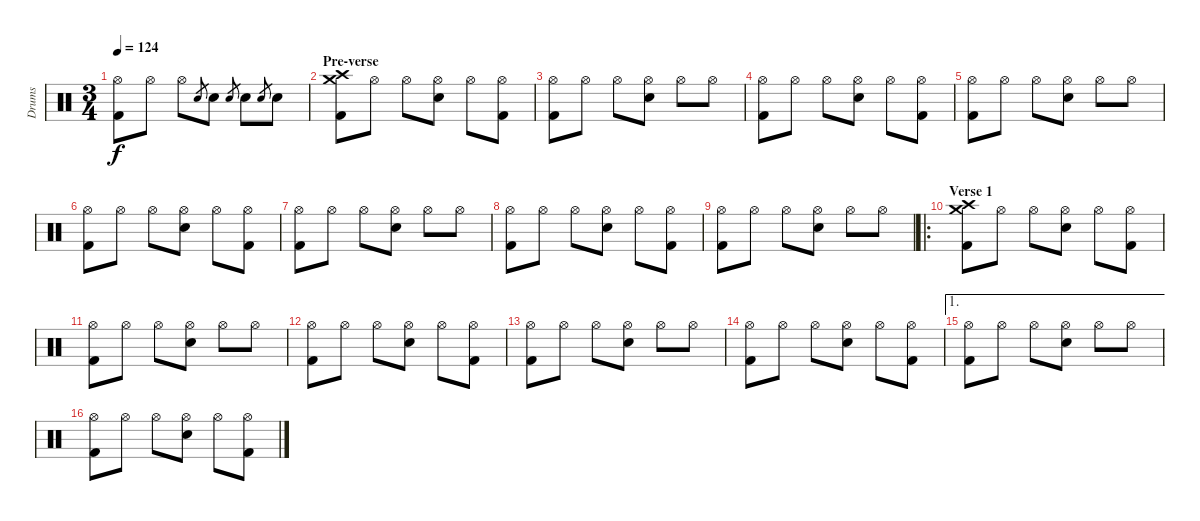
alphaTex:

\track ("Drums" "Drums") {instrument percussion}
\staff {score}
\articulation defaults
\ts (3 4)
\tempo 124
\clef neutral
\ks c
("Hi-Hat (open)" "Kick (hit) 2").8{dy f} "Hi-Hat (open)".8 "Hi-Hat (open)".8 "Electric Snare (hit)".8{gr} "Electric Snare (hit)".8 "Electric Snare (hit)".8{gr} "Electric Snare (hit)".8 "Electric Snare (hit)".8{gr} "Electric Snare (hit)".8 |
\section ("" "Pre-verse")
("Crash medium (hit)" "Crash high (hit)" "Kick (hit) 2").8 "Hi-Hat (open)".8 "Hi-Hat (open)".8 ("Hi-Hat (open)" "Electric Snare (hit)").8 "Hi-Hat (open)".8 ("Hi-Hat (open)" "Kick (hit) 2").8 |
("Hi-Hat (open)" "Kick (hit) 2").8 "Hi-Hat (open)".8 "Hi-Hat (open)".8 ("Hi-Hat (open)" "Electric Snare (hit)").8 "Hi-Hat (open)".8 "Hi-Hat (open)".8 |
("Hi-Hat (open)" "Kick (hit) 2").8 "Hi-Hat (open)".8 "Hi-Hat (open)".8 ("Hi-Hat (open)" "Electric Snare (hit)").8 "Hi-Hat (open)".8 ("Hi-Hat (open)" "Kick (hit) 2").8 |
("Hi-Hat (open)" "Kick (hit) 2").8 "Hi-Hat (open)".8 "Hi-Hat (open)".8 ("Hi-Hat (open)" "Electric Snare (hit)").8 "Hi-Hat (open)".8 "Hi-Hat (open)".8 |
("Hi-Hat (open)" "Kick (hit) 2").8 "Hi-Hat (open)".8 "Hi-Hat (open)".8 ("Hi-Hat (open)" "Electric Snare (hit)").8 "Hi-Hat (open)".8 ("Hi-Hat (open)" "Kick (hit) 2").8 |
("Hi-Hat (open)" "Kick (hit) 2").8 "Hi-Hat (open)".8 "Hi-Hat (open)".8 ("Hi-Hat (open)" "Electric Snare (hit)").8 "Hi-Hat (open)".8 "Hi-Hat (open)".8 |
("Hi-Hat (open)" "Kick (hit) 2").8 "Hi-Hat (open)".8 "Hi-Hat (open)".8 ("Hi-Hat (open)" "Electric Snare (hit)").8 "Hi-Hat (open)".8 ("Hi-Hat (open)" "Kick (hit) 2").8 |
("Hi-Hat (open)" "Kick (hit) 2").8 "Hi-Hat (open)".8 "Hi-Hat (open)".8 ("Hi-Hat (open)" "Electric Snare (hit)").8 "Hi-Hat (open)".8 "Hi-Hat (open)".8 |
\ro
\section ("" "Verse 1")
("Crash medium (hit)" "Crash high (hit)" "Kick (hit) 2").8 "Hi-Hat (open)".8 "Hi-Hat (open)".8 ("Hi-Hat (open)" "Electric Snare (hit)").8 "Hi-Hat (open)".8 ("Hi-Hat (open)" "Kick (hit) 2").8 |
("Hi-Hat (open)" "Kick (hit) 2").8 "Hi-Hat (open)".8 "Hi-Hat (open)".8 ("Hi-Hat (open)" "Electric Snare (hit)").8 "Hi-Hat (open)".8 "Hi-Hat (open)".8 |
("Hi-Hat (open)" "Kick (hit) 2").8 "Hi-Hat (open)".8 "Hi-Hat (open)".8 ("Hi-Hat (open)" "Electric Snare (hit)").8 "Hi-Hat (open)".8 ("Hi-Hat (open)" "Kick (hit) 2").8 |
("Hi-Hat (open)" "Kick (hit) 2").8 "Hi-Hat (open)".8 "Hi-Hat (open)".8 ("Hi-Hat (open)" "Electric Snare (hit)").8 "Hi-Hat (open)".8 "Hi-Hat (open)".8 |
("Hi-Hat (open)" "Kick (hit) 2").8 "Hi-Hat (open)".8 "Hi-Hat (open)".8 ("Hi-Hat (open)" "Electric Snare (hit)").8 "Hi-Hat (open)".8 ("Hi-Hat (open)" "Kick (hit) 2").8 |
\ae 1
("Hi-Hat (open)" "Kick (hit) 2").8 "Hi-Hat (open)".8 "Hi-Hat (open)".8 ("Hi-Hat (open)" "Electric Snare (hit)").8 "Hi-Hat (open)".8 "Hi-Hat (open)".8 |
("Hi-Hat (open)" "Kick (hit) 2").8 "Hi-Hat (open)".8 "Hi-Hat (open)".8 ("Hi-Hat (open)" "Electric Snare (hit)").8 "Hi-Hat (open)".8 ("Hi-Hat (open)" "Kick (hit) 2").8
